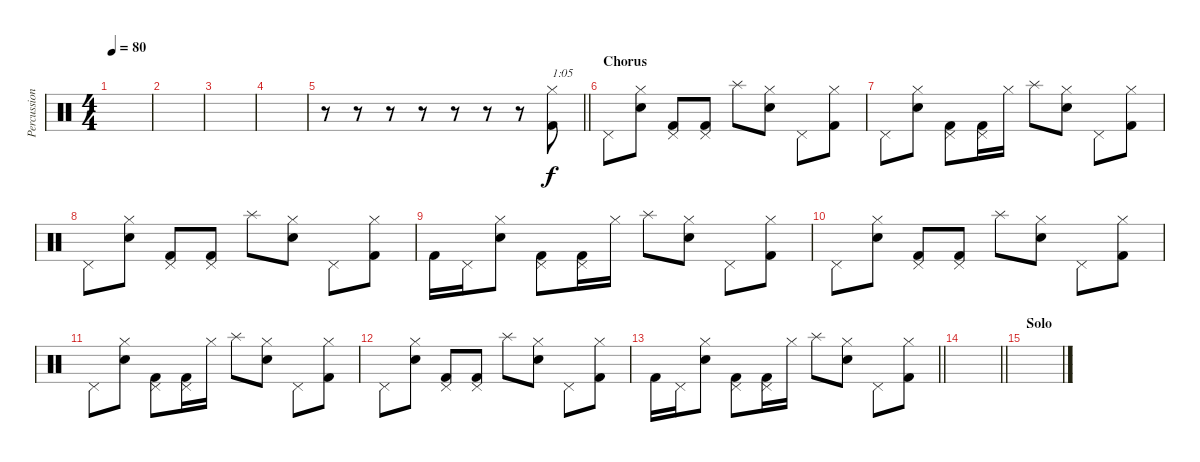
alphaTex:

\track ("Percussion" "Percussion") {instrument percussion}
\staff {score}
\articulation defaults
\ts (4 4)
\tempo 80
\clef neutral
\ks c
|
|
|
|
\barLineRight lightlight
r.8 r.8 r.8 r.8 r.8 r.8 r.8 ("Hi-Hat (closed)" "Kick (hit) 2").8{txt "1:05" volume 11} |
\section ("" "Chorus")
"Pedal Hi-Hat (hit)".8 ("Hi-Hat (closed)" "Electric Snare (hit)").8 ("Pedal Hi-Hat (hit)" "Kick (hit) 2").8 ("Pedal Hi-Hat (hit)" "Kick (hit) 2").8 "Splash (hit)".8 ("Hi-Hat (closed)" "Electric Snare (hit)").8 "Pedal Hi-Hat (hit)".8 ("Hi-Hat (closed)" "Kick (hit) 2").8 |
"Pedal Hi-Hat (hit)".8 ("Hi-Hat (closed)" "Electric Snare (hit)").8 ("Pedal Hi-Hat (hit)" "Kick (hit) 2").8 ("Pedal Hi-Hat (hit)" "Kick (hit) 2").16 "Hi-Hat (closed)".16 "Splash (hit)".8 ("Hi-Hat (closed)" "Electric Snare (hit)").8 "Pedal Hi-Hat (hit)".8 ("Hi-Hat (closed)" "Kick (hit) 2").8 |
"Pedal Hi-Hat (hit)".8 ("Hi-Hat (closed)" "Electric Snare (hit)").8 ("Pedal Hi-Hat (hit)" "Kick (hit) 2").8 ("Pedal Hi-Hat (hit)" "Kick (hit) 2").8 "Splash (hit)".8 ("Hi-Hat (closed)" "Electric Snare (hit)").8 "Pedal Hi-Hat (hit)".8 ("Hi-Hat (closed)" "Kick (hit) 2").8 |
"Kick (hit) 2".16 "Pedal Hi-Hat (hit)".16 ("Hi-Hat (closed)" "Electric Snare (hit)").8 ("Pedal Hi-Hat (hit)" "Kick (hit) 2").8 ("Pedal Hi-Hat (hit)" "Kick (hit) 2").16 "Hi-Hat (closed)".16 "Splash (hit)".8 ("Hi-Hat (closed)" "Electric Snare (hit)").8 "Pedal Hi-Hat (hit)".8 ("Hi-Hat (closed)" "Kick (hit) 2").8 |
"Pedal Hi-Hat (hit)".8 ("Hi-Hat (closed)" "Electric Snare (hit)").8 ("Pedal Hi-Hat (hit)" "Kick (hit) 2").8 ("Pedal Hi-Hat (hit)" "Kick (hit) 2").8 "Splash (hit)".8 ("Hi-Hat (closed)" "Electric Snare (hit)").8 "Pedal Hi-Hat (hit)".8 ("Hi-Hat (closed)" "Kick (hit) 2").8 |
"Pedal Hi-Hat (hit)".8 ("Hi-Hat (closed)" "Electric Snare (hit)").8 ("Pedal Hi-Hat (hit)" "Kick (hit) 2").8 ("Pedal Hi-Hat (hit)" "Kick (hit) 2").16 "Hi-Hat (closed)".16 "Splash (hit)".8 ("Hi-Hat (closed)" "Electric Snare (hit)").8 "Pedal Hi-Hat (hit)".8 ("Hi-Hat (closed)" "Kick (hit) 2").8 |
"Pedal Hi-Hat (hit)".8 ("Hi-Hat (closed)" "Electric Snare (hit)").8 ("Pedal Hi-Hat (hit)" "Kick (hit) 2").8 ("Pedal Hi-Hat (hit)" "Kick (hit) 2").8 "Splash (hit)".8 ("Hi-Hat (closed)" "Electric Snare (hit)").8 "Pedal Hi-Hat (hit)".8 ("Hi-Hat (closed)" "Kick (hit) 2").8 |
\barLineRight lightlight "Kick (hit) 2".16 "Pedal Hi-Hat (hit)".16
("Hi-Hat (closed)" "Electric Snare (hit)").8 ("Pedal Hi-Hat (hit)" "Kick (hit) 2").8 ("Pedal Hi-Hat (hit)" "Kick (hit) 2").16 "Hi-Hat (closed)".16 "Splash (hit)".8 ("Hi-Hat (closed)" "Electric Snare (hit)").8 "Pedal Hi-Hat (hit)".8 ("Hi-Hat (closed)" "Kick (hit) 2").8 |
\barLineRight lightlight
|
\section ("" "Solo")
